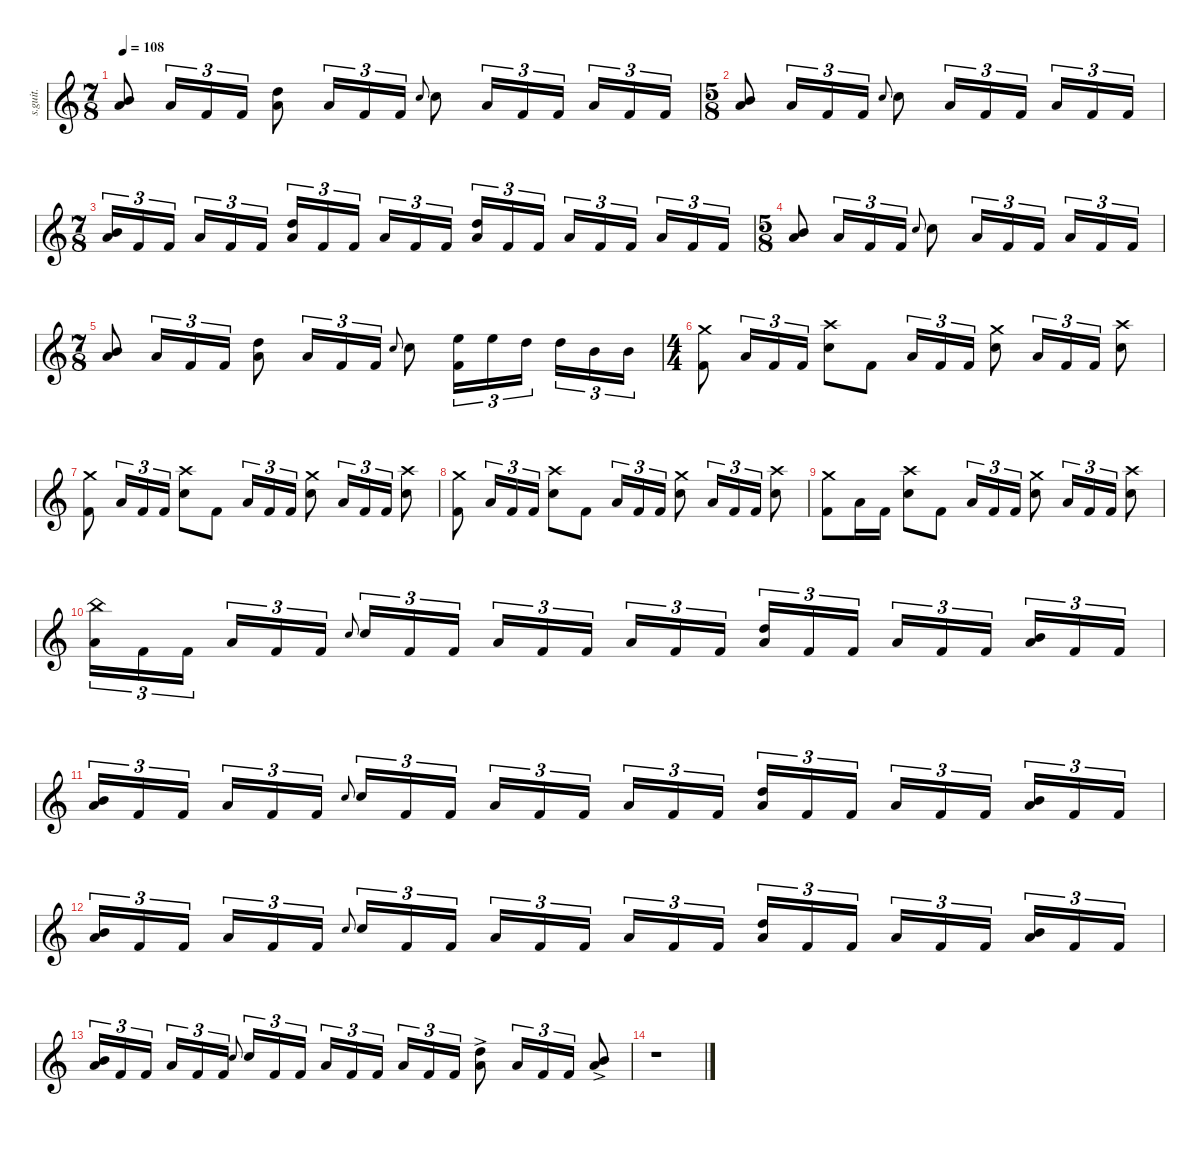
\defaultSystemsLayout 4
\hideDynamics
\bracketExtendMode nobrackets
\track ("Danny Carey" "s.guit.") {instrument percussion}
\staff {score}
\articulation defaults
\ts (7 8)
\beaming (8 2 2 2 2)
\tempo 108
\clef g2
\ks c
("Mid Tom (hit)" "Low Floor Tom (hit)").8{lyrics (0 "") lyrics (1 "") lyrics (2 "") lyrics (3 "") lyrics (4 "") dy f} "Low Floor Tom (hit)".16{tu (3 2) lyrics (0 "") lyrics (1 "") lyrics (2 "") lyrics (3 "") lyrics (4 "")} "Kick (hit) 2".16{tu (3 2) lyrics (0 "") lyrics (1 "") lyrics (2 "") lyrics (3 "") lyrics (4 "")} "Kick (hit) 2".16{tu (3 2) lyrics (0 "") lyrics (1 "") lyrics (2 "") lyrics (3 "") lyrics (4 "")} ("Low Floor Tom (hit)" "High Tom (hit)").8{lyrics (0 "") lyrics (1 "") lyrics (2 "") lyrics (3 "") lyrics (4 "")} "Low Floor Tom (hit)".16{tu (3 2) lyrics (0 "") lyrics (1 "") lyrics (2 "") lyrics (3 "") lyrics (4 "")} "Kick (hit) 2".16{tu (3 2) lyrics (0 "") lyrics (1 "") lyrics (2 "") lyrics (3 "") lyrics (4 "")} "Kick (hit) 2".16{tu (3 2) lyrics (0 "") lyrics (1 "") lyrics (2 "") lyrics (3 "") lyrics (4 "")} "Snare (hit) 2".8{lyrics (0 "") lyrics (1 "") lyrics (2 "") lyrics (3 "") lyrics (4 "") gr onbeat} "Snare (hit) 2".8{lyrics (0 "") lyrics (1 "") lyrics (2 "") lyrics (3 "") lyrics (4 "")} "Low Floor Tom (hit)".16{tu (3 2) lyrics (0 "") lyrics (1 "") lyrics (2 "") lyrics (3 "") lyrics (4 "")} "Kick (hit) 2".16{tu (3 2) lyrics (0 "") lyrics (1 "") lyrics (2 "") lyrics (3 "") lyrics (4 "")} "Kick (hit) 2".16{tu (3 2) lyrics (0 "") lyrics (1 "") lyrics (2 "") lyrics (3 "") lyrics (4 "")} "Low Floor Tom (hit)".16{tu (3 2) lyrics (0 "") lyrics (1 "") lyrics (2 "") lyrics (3 "") lyrics (4 "")} "Kick (hit) 2".16{tu (3 2) lyrics (0 "") lyrics (1 "") lyrics (2 "") lyrics (3 "") lyrics (4 "")} "Kick (hit) 2".16{tu (3 2) lyrics (0 "") lyrics (1 "") lyrics (2 "") lyrics (3 "") lyrics (4 "")} |
\ts (5 8)
\beaming (8 2 2 2 2)
("Mid Tom (hit)" "Low Floor Tom (hit)").8{lyrics (0 "") lyrics (1 "") lyrics (2 "") lyrics (3 "") lyrics (4 "")} "Low Floor Tom (hit)".16{tu (3 2) lyrics (0 "") lyrics (1 "") lyrics (2 "") lyrics (3 "") lyrics (4 "")} "Kick (hit) 2".16{tu (3 2) lyrics (0 "") lyrics (1 "") lyrics (2 "") lyrics (3 "") lyrics (4 "")} "Kick (hit) 2".16{tu (3 2) lyrics (0 "") lyrics (1 "") lyrics (2 "") lyrics (3 "") lyrics (4 "")} "Snare (hit) 2".8{lyrics (0 "") lyrics (1 "") lyrics (2 "") lyrics (3 "") lyrics (4 "") gr onbeat} "Snare (hit) 2".8{lyrics (0 "") lyrics (1 "") lyrics (2 "") lyrics (3 "") lyrics (4 "")} "Low Floor Tom (hit)".16{tu (3 2) lyrics (0 "") lyrics (1 "") lyrics (2 "") lyrics (3 "") lyrics (4 "")} "Kick (hit) 2".16{tu (3 2) lyrics (0 "") lyrics (1 "") lyrics (2 "") lyrics (3 "") lyrics (4 "")} "Kick (hit) 2".16{tu (3 2) lyrics (0 "") lyrics (1 "") lyrics (2 "") lyrics (3 "") lyrics (4 "")} "Low Floor Tom (hit)".16{tu (3 2) lyrics (0 "") lyrics (1 "") lyrics (2 "") lyrics (3 "") lyrics (4 "")} "Kick (hit) 2".16{tu (3 2) lyrics (0 "") lyrics (1 "") lyrics (2 "") lyrics (3 "") lyrics (4 "")} "Kick (hit) 2".16{tu (3 2) lyrics (0 "") lyrics (1 "") lyrics (2 "") lyrics (3 "") lyrics (4 "")} |
\ts (7 8)
\beaming (8 2 2 2 2)
("Mid Tom (hit)" "Low Floor Tom (hit)").16{tu (3 2) lyrics (0 "") lyrics (1 "") lyrics (2 "") lyrics (3 "") lyrics (4 "")} "Kick (hit) 2".16{tu (3 2) lyrics (0 "") lyrics (1 "") lyrics (2 "") lyrics (3 "") lyrics (4 "")} "Kick (hit) 2".16{tu (3 2) lyrics (0 "") lyrics (1 "") lyrics (2 "") lyrics (3 "") lyrics (4 "")} "Low Floor Tom (hit)".16{tu (3 2) lyrics (0 "") lyrics (1 "") lyrics (2 "") lyrics (3 "") lyrics (4 "")} "Kick (hit) 2".16{tu (3 2) lyrics (0 "") lyrics (1 "") lyrics (2 "") lyrics (3 "") lyrics (4 "")} "Kick (hit) 2".16{tu (3 2) lyrics (0 "") lyrics (1 "") lyrics (2 "") lyrics (3 "") lyrics (4 "")} ("Low Floor Tom (hit)" "High Tom (hit)").16{tu (3 2) lyrics (0 "") lyrics (1 "") lyrics (2 "") lyrics (3 "") lyrics (4 "")} "Kick (hit) 2".16{tu (3 2) lyrics (0 "") lyrics (1 "") lyrics (2 "") lyrics (3 "") lyrics (4 "")} "Kick (hit) 2".16{tu (3 2) lyrics (0 "") lyrics (1 "") lyrics (2 "") lyrics (3 "") lyrics (4 "")} "Low Floor Tom (hit)".16{tu (3 2) lyrics (0 "") lyrics (1 "") lyrics (2 "") lyrics (3 "") lyrics (4 "")} "Kick (hit) 2".16{tu (3 2) lyrics (0 "") lyrics (1 "") lyrics (2 "") lyrics (3 "") lyrics (4 "")} "Kick (hit) 2".16{tu (3 2) lyrics (0 "") lyrics (1 "") lyrics (2 "") lyrics (3 "") lyrics (4 "")} ("Low Floor Tom (hit)" "High Tom (hit)").16{tu (3 2) lyrics (0 "") lyrics (1 "") lyrics (2 "") lyrics (3 "") lyrics (4 "")} "Kick (hit) 2".16{tu (3 2) lyrics (0 "") lyrics (1 "") lyrics (2 "") lyrics (3 "") lyrics (4 "")} "Kick (hit) 2".16{tu (3 2) lyrics (0 "") lyrics (1 "") lyrics (2 "") lyrics (3 "") lyrics (4 "")} "Low Tom (hit)".16{tu (3 2) lyrics (0 "") lyrics (1 "") lyrics (2 "") lyrics (3 "") lyrics (4 "")} "Kick (hit) 2".16{tu (3 2) lyrics (0 "") lyrics (1 "") lyrics (2 "") lyrics (3 "") lyrics (4 "")} "Kick (hit) 2".16{tu (3 2) lyrics (0 "") lyrics (1 "") lyrics (2 "") lyrics (3 "") lyrics (4 "")} "Low Tom (hit)".16{tu (3 2) lyrics (0 "") lyrics (1 "") lyrics (2 "") lyrics (3 "") lyrics (4 "")} "Kick (hit) 2".16{tu (3 2) lyrics (0 "") lyrics (1 "") lyrics (2 "") lyrics (3 "") lyrics (4 "")} "Kick (hit) 2".16{tu (3 2) lyrics (0 "") lyrics (1 "") lyrics (2 "") lyrics (3 "") lyrics (4 "")} |
\ts (5 8)
\beaming (8 2 2 2 2)
("Mid Tom (hit)" "Low Floor Tom (hit)").8{lyrics (0 "") lyrics (1 "") lyrics (2 "") lyrics (3 "") lyrics (4 "")} "Low Floor Tom (hit)".16{tu (3 2) lyrics (0 "") lyrics (1 "") lyrics (2 "") lyrics (3 "") lyrics (4 "")} "Kick (hit) 2".16{tu (3 2) lyrics (0 "") lyrics (1 "") lyrics (2 "") lyrics (3 "") lyrics (4 "")} "Kick (hit) 2".16{tu (3 2) lyrics (0 "") lyrics (1 "") lyrics (2 "") lyrics (3 "") lyrics (4 "")} "Snare (hit) 2".8{lyrics (0 "") lyrics (1 "") lyrics (2 "") lyrics (3 "") lyrics (4 "") gr onbeat} "Snare (hit) 2".8{lyrics (0 "") lyrics (1 "") lyrics (2 "") lyrics (3 "") lyrics (4 "")} "Low Floor Tom (hit)".16{tu (3 2) lyrics (0 "") lyrics (1 "") lyrics (2 "") lyrics (3 "") lyrics (4 "")} "Kick (hit) 2".16{tu (3 2) lyrics (0 "") lyrics (1 "") lyrics (2 "") lyrics (3 "") lyrics (4 "")} "Kick (hit) 2".16{tu (3 2) lyrics (0 "") lyrics (1 "") lyrics (2 "") lyrics (3 "") lyrics (4 "")} "Low Floor Tom (hit)".16{tu (3 2) lyrics (0 "") lyrics (1 "") lyrics (2 "") lyrics (3 "") lyrics (4 "")} "Kick (hit) 2".16{tu (3 2) lyrics (0 "") lyrics (1 "") lyrics (2 "") lyrics (3 "") lyrics (4 "")} "Kick (hit) 2".16{tu (3 2) lyrics (0 "") lyrics (1 "") lyrics (2 "") lyrics (3 "") lyrics (4 "")} |
\ts (7 8)
\beaming (8 2 2 2 2)
("Mid Tom (hit)" "Low Floor Tom (hit)").8{lyrics (0 "") lyrics (1 "") lyrics (2 "") lyrics (3 "") lyrics (4 "")} "Low Floor Tom (hit)".16{tu (3 2) lyrics (0 "") lyrics (1 "") lyrics (2 "") lyrics (3 "") lyrics (4 "")} "Kick (hit) 2".16{tu (3 2) lyrics (0 "") lyrics (1 "") lyrics (2 "") lyrics (3 "") lyrics (4 "")} "Kick (hit) 2".16{tu (3 2) lyrics (0 "") lyrics (1 "") lyrics (2 "") lyrics (3 "") lyrics (4 "")} ("Low Floor Tom (hit)" "High Tom (hit)").8{lyrics (0 "") lyrics (1 "") lyrics (2 "") lyrics (3 "") lyrics (4 "")} "Low Floor Tom (hit)".16{tu (3 2) lyrics (0 "") lyrics (1 "") lyrics (2 "") lyrics (3 "") lyrics (4 "")} "Kick (hit) 2".16{tu (3 2) lyrics (0 "") lyrics (1 "") lyrics (2 "") lyrics (3 "") lyrics (4 "")} "Kick (hit) 2".16{tu (3 2) lyrics (0 "") lyrics (1 "") lyrics (2 "") lyrics (3 "") lyrics (4 "")} "Snare (hit) 2".8{lyrics (0 "") lyrics (1 "") lyrics (2 "") lyrics (3 "") lyrics (4 "") gr onbeat} "Snare (hit) 2".8{lyrics (0 "") lyrics (1 "") lyrics (2 "") lyrics (3 "") lyrics (4 "")} ("High Floor Tom (hit)" "Kick (hit) 2").16{tu (3 2) lyrics (0 "") lyrics (1 "") lyrics (2 "") lyrics (3 "") lyrics (4 "")} "High Floor Tom (hit)".16{tu (3 2) lyrics (0 "") lyrics (1 "") lyrics (2 "") lyrics (3 "") lyrics (4 "")} "High Tom (hit)".16{tu (3 2) lyrics (0 "") lyrics (1 "") lyrics (2 "") lyrics (3 "") lyrics (4 "")} "High Tom (hit)".16{tu (3 2) lyrics (0 "") lyrics (1 "") lyrics (2 "") lyrics (3 "") lyrics (4 "")} "Mid Tom (hit)".16{tu (3 2) lyrics (0 "") lyrics (1 "") lyrics (2 "") lyrics (3 "") lyrics (4 "")} "Mid Tom (hit)".16{tu (3 2) lyrics (0 "") lyrics (1 "") lyrics (2 "") lyrics (3 "") lyrics (4 "")} |
\ts (4 4)
\beaming (8 2 2 2 2)
("Crash medium (hit)" "Kick (hit) 2").8{lyrics (0 "") lyrics (1 "") lyrics (2 "") lyrics (3 "") lyrics (4 "")} "Low Floor Tom (hit)".16{tu (3 2) lyrics (0 "") lyrics (1 "") lyrics (2 "") lyrics (3 "") lyrics (4 "")} "Kick (hit) 2".16{tu (3 2) lyrics (0 "") lyrics (1 "") lyrics (2 "") lyrics (3 "") lyrics (4 "")} "Kick (hit) 2".16{tu (3 2) lyrics (0 "") lyrics (1 "") lyrics (2 "") lyrics (3 "") lyrics (4 "")} ("Snare (hit) 2" "Crash high (hit)").8{lyrics (0 "") lyrics (1 "") lyrics (2 "") lyrics (3 "") lyrics (4 "")} "Kick (hit) 2".8{lyrics (0 "") lyrics (1 "") lyrics (2 "") lyrics (3 "") lyrics (4 "")} "Low Floor Tom (hit)".16{tu (3 2) lyrics (0 "") lyrics (1 "") lyrics (2 "") lyrics (3 "") lyrics (4 "")} "Kick (hit) 2".16{tu (3 2) lyrics (0 "") lyrics (1 "") lyrics (2 "") lyrics (3 "") lyrics (4 "")} "Kick (hit) 2".16{tu (3 2) lyrics (0 "") lyrics (1 "") lyrics (2 "") lyrics (3 "") lyrics (4 "")} ("Crash medium (hit)" "Snare (hit) 2").8{lyrics (0 "") lyrics (1 "") lyrics (2 "") lyrics (3 "") lyrics (4 "")} "Low Floor Tom (hit)".16{tu (3 2) lyrics (0 "") lyrics (1 "") lyrics (2 "") lyrics (3 "") lyrics (4 "")} "Kick (hit) 2".16{tu (3 2) lyrics (0 "") lyrics (1 "") lyrics (2 "") lyrics (3 "") lyrics (4 "")} "Kick (hit) 2".16{tu (3 2) lyrics (0 "") lyrics (1 "") lyrics (2 "") lyrics (3 "") lyrics (4 "")} ("Snare (hit) 2" "Crash high (hit)").8{lyrics (0 "") lyrics (1 "") lyrics (2 "") lyrics (3 "") lyrics (4 "")} |
("Crash medium (hit)" "Kick (hit) 2").8{lyrics (0 "") lyrics (1 "") lyrics (2 "") lyrics (3 "") lyrics (4 "")} "Low Floor Tom (hit)".16{tu (3 2) lyrics (0 "") lyrics (1 "") lyrics (2 "") lyrics (3 "") lyrics (4 "")} "Kick (hit) 2".16{tu (3 2) lyrics (0 "") lyrics (1 "") lyrics (2 "") lyrics (3 "") lyrics (4 "")} "Kick (hit) 2".16{tu (3 2) lyrics (0 "") lyrics (1 "") lyrics (2 "") lyrics (3 "") lyrics (4 "")} ("Snare (hit) 2" "Crash high (hit)").8{lyrics (0 "") lyrics (1 "") lyrics (2 "") lyrics (3 "") lyrics (4 "")} "Kick (hit) 2".8{lyrics (0 "") lyrics (1 "") lyrics (2 "") lyrics (3 "") lyrics (4 "")} "Low Floor Tom (hit)".16{tu (3 2) lyrics (0 "") lyrics (1 "") lyrics (2 "") lyrics (3 "") lyrics (4 "")} "Kick (hit) 2".16{tu (3 2) lyrics (0 "") lyrics (1 "") lyrics (2 "") lyrics (3 "") lyrics (4 "")} "Kick (hit) 2".16{tu (3 2) lyrics (0 "") lyrics (1 "") lyrics (2 "") lyrics (3 "") lyrics (4 "")} ("Crash medium (hit)" "Snare (hit) 2").8{lyrics (0 "") lyrics (1 "") lyrics (2 "") lyrics (3 "") lyrics (4 "")} "Low Floor Tom (hit)".16{tu (3 2) lyrics (0 "") lyrics (1 "") lyrics (2 "") lyrics (3 "") lyrics (4 "")} "Kick (hit) 2".16{tu (3 2) lyrics (0 "") lyrics (1 "") lyrics (2 "") lyrics (3 "") lyrics (4 "")} "Kick (hit) 2".16{tu (3 2) lyrics (0 "") lyrics (1 "") lyrics (2 "") lyrics (3 "") lyrics (4 "")} ("Snare (hit) 2" "Crash high (hit)").8{lyrics (0 "") lyrics (1 "") lyrics (2 "") lyrics (3 "") lyrics (4 "")} |
("Crash medium (hit)" "Kick (hit) 2").8{lyrics (0 "") lyrics (1 "") lyrics (2 "") lyrics (3 "") lyrics (4 "")} "Low Floor Tom (hit)".16{tu (3 2) lyrics (0 "") lyrics (1 "") lyrics (2 "") lyrics (3 "") lyrics (4 "")} "Kick (hit) 2".16{tu (3 2) lyrics (0 "") lyrics (1 "") lyrics (2 "") lyrics (3 "") lyrics (4 "")} "Kick (hit) 2".16{tu (3 2) lyrics (0 "") lyrics (1 "") lyrics (2 "") lyrics (3 "") lyrics (4 "")} ("Snare (hit) 2" "Crash high (hit)").8{lyrics (0 "") lyrics (1 "") lyrics (2 "") lyrics (3 "") lyrics (4 "")} "Kick (hit) 2".8{lyrics (0 "") lyrics (1 "") lyrics (2 "") lyrics (3 "") lyrics (4 "")} "Low Floor Tom (hit)".16{tu (3 2) lyrics (0 "") lyrics (1 "") lyrics (2 "") lyrics (3 "") lyrics (4 "")} "Kick (hit) 2".16{tu (3 2) lyrics (0 "") lyrics (1 "") lyrics (2 "") lyrics (3 "") lyrics (4 "")} "Kick (hit) 2".16{tu (3 2) lyrics (0 "") lyrics (1 "") lyrics (2 "") lyrics (3 "") lyrics (4 "")} ("Crash medium (hit)" "Snare (hit) 2").8{lyrics (0 "") lyrics (1 "") lyrics (2 "") lyrics (3 "") lyrics (4 "")} "Low Floor Tom (hit)".16{tu (3 2) lyrics (0 "") lyrics (1 "") lyrics (2 "") lyrics (3 "") lyrics (4 "")} "Kick (hit) 2".16{tu (3 2) lyrics (0 "") lyrics (1 "") lyrics (2 "") lyrics (3 "") lyrics (4 "")} "Kick (hit) 2".16{tu (3 2) lyrics (0 "") lyrics (1 "") lyrics (2 "") lyrics (3 "") lyrics (4 "")} ("Snare (hit) 2" "Crash high (hit)").8{lyrics (0 "") lyrics (1 "") lyrics (2 "") lyrics (3 "") lyrics (4 "")} |
("Crash medium (hit)" "Kick (hit) 2").8{lyrics (0 "") lyrics (1 "") lyrics (2 "") lyrics (3 "") lyrics (4 "")} "Low Floor Tom (hit)".16{lyrics (0 "") lyrics (1 "") lyrics (2 "") lyrics (3 "") lyrics (4 "")} "Kick (hit) 2".16{lyrics (0 "") lyrics (1 "") lyrics (2 "") lyrics (3 "") lyrics (4 "")} ("Snare (hit) 2" "Crash high (hit)").8{lyrics (0 "") lyrics (1 "") lyrics (2 "") lyrics (3 "") lyrics (4 "")} "Kick (hit) 2".8{lyrics (0 "") lyrics (1 "") lyrics (2 "") lyrics (3 "") lyrics (4 "")} "Low Floor Tom (hit)".16{tu (3 2) lyrics (0 "") lyrics (1 "") lyrics (2 "") lyrics (3 "") lyrics (4 "")} "Kick (hit) 2".16{tu (3 2) lyrics (0 "") lyrics (1 "") lyrics (2 "") lyrics (3 "") lyrics (4 "")} "Kick (hit) 2".16{tu (3 2) lyrics (0 "") lyrics (1 "") lyrics (2 "") lyrics (3 "") lyrics (4 "")} ("Crash medium (hit)" "Snare (hit) 2").8{lyrics (0 "") lyrics (1 "") lyrics (2 "") lyrics (3 "") lyrics (4 "")} "Low Floor Tom (hit)".16{tu (3 2) lyrics (0 "") lyrics (1 "") lyrics (2 "") lyrics (3 "") lyrics (4 "")} "Kick (hit) 2".16{tu (3 2) lyrics (0 "") lyrics (1 "") lyrics (2 "") lyrics (3 "") lyrics (4 "")} "Kick (hit) 2".16{tu (3 2) lyrics (0 "") lyrics (1 "") lyrics (2 "") lyrics (3 "") lyrics (4 "")} ("Snare (hit) 2" "Crash high (hit)").8{lyrics (0 "") lyrics (1 "") lyrics (2 "") lyrics (3 "") lyrics (4 "")} |
("China (hit)" "Low Floor Tom (hit)").16{tu (3 2) lyrics (0 "") lyrics (1 "") lyrics (2 "") lyrics (3 "") lyrics (4 "")} "Kick (hit) 2".16{tu (3 2) lyrics (0 "") lyrics (1 "") lyrics (2 "") lyrics (3 "") lyrics (4 "")} "Kick (hit) 2".16{tu (3 2) lyrics (0 "") lyrics (1 "") lyrics (2 "") lyrics (3 "") lyrics (4 "")} "Low Floor Tom (hit)".16{tu (3 2) lyrics (0 "") lyrics (1 "") lyrics (2 "") lyrics (3 "") lyrics (4 "")} "Kick (hit) 2".16{tu (3 2) lyrics (0 "") lyrics (1 "") lyrics (2 "") lyrics (3 "") lyrics (4 "")} "Kick (hit) 2".16{tu (3 2) lyrics (0 "") lyrics (1 "") lyrics (2 "") lyrics (3 "") lyrics (4 "")} "Snare (hit) 2".8{lyrics (0 "") lyrics (1 "") lyrics (2 "") lyrics (3 "") lyrics (4 "") gr onbeat} "Snare (hit) 2".16{tu (3 2) lyrics (0 "") lyrics (1 "") lyrics (2 "") lyrics (3 "") lyrics (4 "")} "Kick (hit) 2".16{tu (3 2) lyrics (0 "") lyrics (1 "") lyrics (2 "") lyrics (3 "") lyrics (4 "")} "Kick (hit) 2".16{tu (3 2) lyrics (0 "") lyrics (1 "") lyrics (2 "") lyrics (3 "") lyrics (4 "")} "Low Floor Tom (hit)".16{tu (3 2) lyrics (0 "") lyrics (1 "") lyrics (2 "") lyrics (3 "") lyrics (4 "")} "Kick (hit) 2".16{tu (3 2) lyrics (0 "") lyrics (1 "") lyrics (2 "") lyrics (3 "") lyrics (4 "")} "Kick (hit) 2".16{tu (3 2) lyrics (0 "") lyrics (1 "") lyrics (2 "") lyrics (3 "") lyrics (4 "")} "Low Floor Tom (hit)".16{tu (3 2) lyrics (0 "") lyrics (1 "") lyrics (2 "") lyrics (3 "") lyrics (4 "")} "Kick (hit) 2".16{tu (3 2) lyrics (0 "") lyrics (1 "") lyrics (2 "") lyrics (3 "") lyrics (4 "")} "Kick (hit) 2".16{tu (3 2) lyrics (0 "") lyrics (1 "") lyrics (2 "") lyrics (3 "") lyrics (4 "")} ("High Tom (hit)" "Low Floor Tom (hit)").16{tu (3 2) lyrics (0 "") lyrics (1 "") lyrics (2 "") lyrics (3 "") lyrics (4 "")} "Kick (hit) 2".16{tu (3 2) lyrics (0 "") lyrics (1 "") lyrics (2 "") lyrics (3 "") lyrics (4 "")} "Kick (hit) 2".16{tu (3 2) lyrics (0 "") lyrics (1 "") lyrics (2 "") lyrics (3 "") lyrics (4 "")} "Low Floor Tom (hit)".16{tu (3 2) lyrics (0 "") lyrics (1 "") lyrics (2 "") lyrics (3 "") lyrics (4 "")} "Kick (hit) 2".16{tu (3 2) lyrics (0 "") lyrics (1 "") lyrics (2 "") lyrics (3 "") lyrics (4 "")} "Kick (hit) 2".16{tu (3 2) lyrics (0 "") lyrics (1 "") lyrics (2 "") lyrics (3 "") lyrics (4 "")} ("Mid Tom (hit)" "Low Floor Tom (hit)").16{tu (3 2) lyrics (0 "") lyrics (1 "") lyrics (2 "") lyrics (3 "") lyrics (4 "")} "Kick (hit) 2".16{tu (3 2) lyrics (0 "") lyrics (1 "") lyrics (2 "") lyrics (3 "") lyrics (4 "")} "Kick (hit) 2".16{tu (3 2) lyrics (0 "") lyrics (1 "") lyrics (2 "") lyrics (3 "") lyrics (4 "")} |
("Low Floor Tom (hit)" "Mid Tom (hit)").16{tu (3 2) lyrics (0 "") lyrics (1 "") lyrics (2 "") lyrics (3 "") lyrics (4 "")} "Kick (hit) 2".16{tu (3 2) lyrics (0 "") lyrics (1 "") lyrics (2 "") lyrics (3 "") lyrics (4 "")} "Kick (hit) 2".16{tu (3 2) lyrics (0 "") lyrics (1 "") lyrics (2 "") lyrics (3 "") lyrics (4 "")} "Low Floor Tom (hit)".16{tu (3 2) lyrics (0 "") lyrics (1 "") lyrics (2 "") lyrics (3 "") lyrics (4 "")} "Kick (hit) 2".16{tu (3 2) lyrics (0 "") lyrics (1 "") lyrics (2 "") lyrics (3 "") lyrics (4 "")} "Kick (hit) 2".16{tu (3 2) lyrics (0 "") lyrics (1 "") lyrics (2 "") lyrics (3 "") lyrics (4 "")} "Snare (hit) 2".8{lyrics (0 "") lyrics (1 "") lyrics (2 "") lyrics (3 "") lyrics (4 "") gr onbeat} "Snare (hit) 2".16{tu (3 2) lyrics (0 "") lyrics (1 "") lyrics (2 "") lyrics (3 "") lyrics (4 "")} "Kick (hit) 2".16{tu (3 2) lyrics (0 "") lyrics (1 "") lyrics (2 "") lyrics (3 "") lyrics (4 "")} "Kick (hit) 2".16{tu (3 2) lyrics (0 "") lyrics (1 "") lyrics (2 "") lyrics (3 "") lyrics (4 "")} "Low Floor Tom (hit)".16{tu (3 2) lyrics (0 "") lyrics (1 "") lyrics (2 "") lyrics (3 "") lyrics (4 "")} "Kick (hit) 2".16{tu (3 2) lyrics (0 "") lyrics (1 "") lyrics (2 "") lyrics (3 "") lyrics (4 "")} "Kick (hit) 2".16{tu (3 2) lyrics (0 "") lyrics (1 "") lyrics (2 "") lyrics (3 "") lyrics (4 "")} "Low Floor Tom (hit)".16{tu (3 2) lyrics (0 "") lyrics (1 "") lyrics (2 "") lyrics (3 "") lyrics (4 "")} "Kick (hit) 2".16{tu (3 2) lyrics (0 "") lyrics (1 "") lyrics (2 "") lyrics (3 "") lyrics (4 "")} "Kick (hit) 2".16{tu (3 2) lyrics (0 "") lyrics (1 "") lyrics (2 "") lyrics (3 "") lyrics (4 "")} ("High Tom (hit)" "Low Floor Tom (hit)").16{tu (3 2) lyrics (0 "") lyrics (1 "") lyrics (2 "") lyrics (3 "") lyrics (4 "")} "Kick (hit) 2".16{tu (3 2) lyrics (0 "") lyrics (1 "") lyrics (2 "") lyrics (3 "") lyrics (4 "")} "Kick (hit) 2".16{tu (3 2) lyrics (0 "") lyrics (1 "") lyrics (2 "") lyrics (3 "") lyrics (4 "")} "Low Floor Tom (hit)".16{tu (3 2) lyrics (0 "") lyrics (1 "") lyrics (2 "") lyrics (3 "") lyrics (4 "")} "Kick (hit) 2".16{tu (3 2) lyrics (0 "") lyrics (1 "") lyrics (2 "") lyrics (3 "") lyrics (4 "")} "Kick (hit) 2".16{tu (3 2) lyrics (0 "") lyrics (1 "") lyrics (2 "") lyrics (3 "") lyrics (4 "")} ("Mid Tom (hit)" "Low Floor Tom (hit)").16{tu (3 2) lyrics (0 "") lyrics (1 "") lyrics (2 "") lyrics (3 "") lyrics (4 "")} "Kick (hit) 2".16{tu (3 2) lyrics (0 "") lyrics (1 "") lyrics (2 "") lyrics (3 "") lyrics (4 "")} "Kick (hit) 2".16{tu (3 2) lyrics (0 "") lyrics (1 "") lyrics (2 "") lyrics (3 "") lyrics (4 "")} |
("Low Floor Tom (hit)" "Mid Tom (hit)").16{tu (3 2) lyrics (0 "") lyrics (1 "") lyrics (2 "") lyrics (3 "") lyrics (4 "")} "Kick (hit) 2".16{tu (3 2) lyrics (0 "") lyrics (1 "") lyrics (2 "") lyrics (3 "") lyrics (4 "")} "Kick (hit) 2".16{tu (3 2) lyrics (0 "") lyrics (1 "") lyrics (2 "") lyrics (3 "") lyrics (4 "")} "Low Floor Tom (hit)".16{tu (3 2) lyrics (0 "") lyrics (1 "") lyrics (2 "") lyrics (3 "") lyrics (4 "")} "Kick (hit) 2".16{tu (3 2) lyrics (0 "") lyrics (1 "") lyrics (2 "") lyrics (3 "") lyrics (4 "")} "Kick (hit) 2".16{tu (3 2) lyrics (0 "") lyrics (1 "") lyrics (2 "") lyrics (3 "") lyrics (4 "")} "Snare (hit) 2".8{lyrics (0 "") lyrics (1 "") lyrics (2 "") lyrics (3 "") lyrics (4 "") gr onbeat} "Snare (hit) 2".16{tu (3 2) lyrics (0 "") lyrics (1 "") lyrics (2 "") lyrics (3 "") lyrics (4 "")} "Kick (hit) 2".16{tu (3 2) lyrics (0 "") lyrics (1 "") lyrics (2 "") lyrics (3 "") lyrics (4 "")} "Kick (hit) 2".16{tu (3 2) lyrics (0 "") lyrics (1 "") lyrics (2 "") lyrics (3 "") lyrics (4 "")} "Low Floor Tom (hit)".16{tu (3 2) lyrics (0 "") lyrics (1 "") lyrics (2 "") lyrics (3 "") lyrics (4 "")} "Kick (hit) 2".16{tu (3 2) lyrics (0 "") lyrics (1 "") lyrics (2 "") lyrics (3 "") lyrics (4 "")} "Kick (hit) 2".16{tu (3 2) lyrics (0 "") lyrics (1 "") lyrics (2 "") lyrics (3 "") lyrics (4 "")} "Low Floor Tom (hit)".16{tu (3 2) lyrics (0 "") lyrics (1 "") lyrics (2 "") lyrics (3 "") lyrics (4 "")} "Kick (hit) 2".16{tu (3 2) lyrics (0 "") lyrics (1 "") lyrics (2 "") lyrics (3 "") lyrics (4 "")} "Kick (hit) 2".16{tu (3 2) lyrics (0 "") lyrics (1 "") lyrics (2 "") lyrics (3 "") lyrics (4 "")} ("High Tom (hit)" "Low Floor Tom (hit)").16{tu (3 2) lyrics (0 "") lyrics (1 "") lyrics (2 "") lyrics (3 "") lyrics (4 "")} "Kick (hit) 2".16{tu (3 2) lyrics (0 "") lyrics (1 "") lyrics (2 "") lyrics (3 "") lyrics (4 "")} "Kick (hit) 2".16{tu (3 2) lyrics (0 "") lyrics (1 "") lyrics (2 "") lyrics (3 "") lyrics (4 "")} "Low Floor Tom (hit)".16{tu (3 2) lyrics (0 "") lyrics (1 "") lyrics (2 "") lyrics (3 "") lyrics (4 "")} "Kick (hit) 2".16{tu (3 2) lyrics (0 "") lyrics (1 "") lyrics (2 "") lyrics (3 "") lyrics (4 "")} "Kick (hit) 2".16{tu (3 2) lyrics (0 "") lyrics (1 "") lyrics (2 "") lyrics (3 "") lyrics (4 "")} ("Mid Tom (hit)" "Low Floor Tom (hit)").16{tu (3 2) lyrics (0 "") lyrics (1 "") lyrics (2 "") lyrics (3 "") lyrics (4 "")} "Kick (hit) 2".16{tu (3 2) lyrics (0 "") lyrics (1 "") lyrics (2 "") lyrics (3 "") lyrics (4 "")} "Kick (hit) 2".16{tu (3 2) lyrics (0 "") lyrics (1 "") lyrics (2 "") lyrics (3 "") lyrics (4 "")} |
("Low Floor Tom (hit)" "Mid Tom (hit)").16{tu (3 2) lyrics (0 "") lyrics (1 "") lyrics (2 "") lyrics (3 "") lyrics (4 "")} "Kick (hit) 2".16{tu (3 2) lyrics (0 "") lyrics (1 "") lyrics (2 "") lyrics (3 "") lyrics (4 "")} "Kick (hit) 2".16{tu (3 2) lyrics (0 "") lyrics (1 "") lyrics (2 "") lyrics (3 "") lyrics (4 "")} "Low Floor Tom (hit)".16{tu (3 2) lyrics (0 "") lyrics (1 "") lyrics (2 "") lyrics (3 "") lyrics (4 "")} "Kick (hit) 2".16{tu (3 2) lyrics (0 "") lyrics (1 "") lyrics (2 "") lyrics (3 "") lyrics (4 "")} "Kick (hit) 2".16{tu (3 2) lyrics (0 "") lyrics (1 "") lyrics (2 "") lyrics (3 "") lyrics (4 "")} "Snare (hit) 2".8{lyrics (0 "") lyrics (1 "") lyrics (2 "") lyrics (3 "") lyrics (4 "") gr onbeat} "Snare (hit) 2".16{tu (3 2) lyrics (0 "") lyrics (1 "") lyrics (2 "") lyrics (3 "") lyrics (4 "")} "Kick (hit) 2".16{tu (3 2) lyrics (0 "") lyrics (1 "") lyrics (2 "") lyrics (3 "") lyrics (4 "")} "Kick (hit) 2".16{tu (3 2) lyrics (0 "") lyrics (1 "") lyrics (2 "") lyrics (3 "") lyrics (4 "")} "Low Floor Tom (hit)".16{tu (3 2) lyrics (0 "") lyrics (1 "") lyrics (2 "") lyrics (3 "") lyrics (4 "")} "Kick (hit) 2".16{tu (3 2) lyrics (0 "") lyrics (1 "") lyrics (2 "") lyrics (3 "") lyrics (4 "")} "Kick (hit) 2".16{tu (3 2) lyrics (0 "") lyrics (1 "") lyrics (2 "") lyrics (3 "") lyrics (4 "")} "Low Floor Tom (hit)".16{tu (3 2) lyrics (0 "") lyrics (1 "") lyrics (2 "") lyrics (3 "") lyrics (4 "")} "Kick (hit) 2".16{tu (3 2) lyrics (0 "") lyrics (1 "") lyrics (2 "") lyrics (3 "") lyrics (4 "")} "Kick (hit) 2".16{tu (3 2) lyrics (0 "") lyrics (1 "") lyrics (2 "") lyrics (3 "") lyrics (4 "")} ("High Tom (hit)"{ac} "Low Floor Tom (hit)"{ac}).8{lyrics (0 "") lyrics (1 "") lyrics (2 "") lyrics (3 "") lyrics (4 "")} "Low Floor Tom (hit)".16{tu (3 2) lyrics (0 "") lyrics (1 "") lyrics (2 "") lyrics (3 "") lyrics (4 "")} "Kick (hit) 2".16{tu (3 2) lyrics (0 "") lyrics (1 "") lyrics (2 "") lyrics (3 "") lyrics (4 "")} "Kick (hit) 2".16{tu (3 2) lyrics (0 "") lyrics (1 "") lyrics (2 "") lyrics (3 "") lyrics (4 "")} ("Low Floor Tom (hit)"{ac} "Mid Tom (hit)"{ac}).8{lyrics (0 "") lyrics (1 "") lyrics (2 "") lyrics (3 "") lyrics (4 "")} |
r.1
